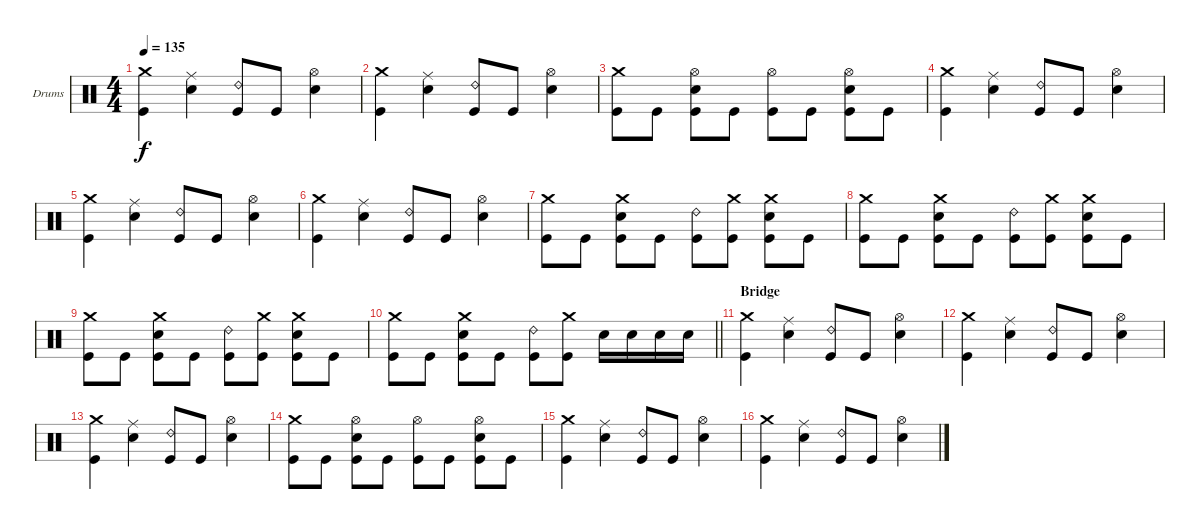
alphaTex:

\bracketExtendMode groupsimilarinstruments
\firstSystemTrackNameOrientation horizontal
\otherSystemsTrackNameOrientation horizontal
\track ("Drumkit" "Drums") {multiBarRest instrument percussion}
\staff {score}
\articulation defaults
\ts (4 4)
\tempo 135
\clef neutral
\ks c
("Crash medium (hit)" "Kick (hit)").4{dy f} ("Ride (middle)" "Snare (hit) 2").4 ("Ride (bell) 2" "Kick (hit)").8 "Kick (hit)".8 ("Hi-Hat (open)" "Snare (hit) 2").4 |
("Crash medium (hit)" "Kick (hit)").4 ("Ride (middle)" "Snare (hit) 2").4 ("Ride (bell) 2" "Kick (hit)").8 "Kick (hit)".8 ("Hi-Hat (open)" "Snare (hit) 2").4 |
("Crash medium (hit)" "Kick (hit)").8 "Kick (hit)".8 ("Hi-Hat (open)" "Snare (hit) 2" "Kick (hit)").8 "Kick (hit)".8 ("Hi-Hat (open)" "Kick (hit)").8 "Kick (hit)".8 ("Hi-Hat (open)" "Snare (hit) 2" "Kick (hit)").8 "Kick (hit)".8 |
("Crash medium (hit)" "Kick (hit)").4 ("Ride (middle)" "Snare (hit) 2").4 ("Ride (bell) 2" "Kick (hit)").8 "Kick (hit)".8 ("Hi-Hat (open)" "Snare (hit) 2").4 |
("Crash medium (hit)" "Kick (hit)").4 ("Ride (middle)" "Snare (hit) 2").4 ("Ride (bell) 2" "Kick (hit)").8 "Kick (hit)".8 ("Hi-Hat (open)" "Snare (hit) 2").4 |
("Crash medium (hit)" "Kick (hit)").4 ("Ride (middle)" "Snare (hit) 2").4 ("Ride (bell) 2" "Kick (hit)").8 "Kick (hit)".8 ("Hi-Hat (open)" "Snare (hit) 2").4 |
("Crash medium (hit)" "Kick (hit)").8 "Kick (hit)".8 ("Crash medium (hit)" "Snare (hit) 2" "Kick (hit)").8 "Kick (hit)".8 ("Ride (bell) 2" "Kick (hit)").8 ("Crash medium (hit)" "Kick (hit)").8 ("Crash medium (hit)" "Snare (hit) 2" "Kick (hit)").8 "Kick (hit)".8 |
("Crash medium (hit)" "Kick (hit)").8 "Kick (hit)".8 ("Crash medium (hit)" "Snare (hit) 2" "Kick (hit)").8 "Kick (hit)".8 ("Ride (bell) 2" "Kick (hit)").8 ("Crash medium (hit)" "Kick (hit)").8 ("Crash medium (hit)" "Snare (hit) 2" "Kick (hit)").8 "Kick (hit)".8 |
("Crash medium (hit)" "Kick (hit)").8 "Kick (hit)".8 ("Crash medium (hit)" "Snare (hit) 2" "Kick (hit)").8 "Kick (hit)".8 ("Ride (bell) 2" "Kick (hit)").8 ("Crash medium (hit)" "Kick (hit)").8 ("Crash medium (hit)" "Snare (hit) 2" "Kick (hit)").8 "Kick (hit)".8 |
\barLineRight lightlight
("Crash medium (hit)" "Kick (hit)").8 "Kick (hit)".8 ("Crash medium (hit)" "Snare (hit) 2" "Kick (hit)").8 "Kick (hit)".8 ("Ride (bell) 2" "Kick (hit)").8 ("Crash medium (hit)" "Kick (hit)").8 "Snare (hit) 2".16 "Snare (hit) 2".16 "Snare (hit) 2".16 "Snare (hit) 2".16 |
\section ("" "Bridge")
("Crash medium (hit)" "Kick (hit)").4 ("Ride (middle)" "Snare (hit) 2").4 ("Ride (bell) 2" "Kick (hit)").8 "Kick (hit)".8 ("Hi-Hat (open)" "Snare (hit) 2").4 |
("Crash medium (hit)" "Kick (hit)").4 ("Ride (middle)" "Snare (hit) 2").4 ("Ride (bell) 2" "Kick (hit)").8 "Kick (hit)".8 ("Hi-Hat (open)" "Snare (hit) 2").4 |
("Crash medium (hit)" "Kick (hit)").4 ("Ride (middle)" "Snare (hit) 2").4 ("Ride (bell) 2" "Kick (hit)").8 "Kick (hit)".8 ("Hi-Hat (open)" "Snare (hit) 2").4 |
("Crash medium (hit)" "Kick (hit)").8 "Kick (hit)".8 ("Hi-Hat (open)" "Snare (hit) 2" "Kick (hit)").8 "Kick (hit)".8 ("Hi-Hat (open)" "Kick (hit)").8 "Kick (hit)".8 ("Hi-Hat (open)" "Snare (hit) 2" "Kick (hit)").8 "Kick (hit)".8 |
("Crash medium (hit)" "Kick (hit)").4 ("Ride (middle)" "Snare (hit) 2").4 ("Ride (bell) 2" "Kick (hit)").8 "Kick (hit)".8 ("Hi-Hat (open)" "Snare (hit) 2").4 |
("Crash medium (hit)" "Kick (hit)").4 ("Ride (middle)" "Snare (hit) 2").4 ("Ride (bell) 2" "Kick (hit)").8 "Kick (hit)".8 ("Hi-Hat (open)" "Snare (hit) 2").4
